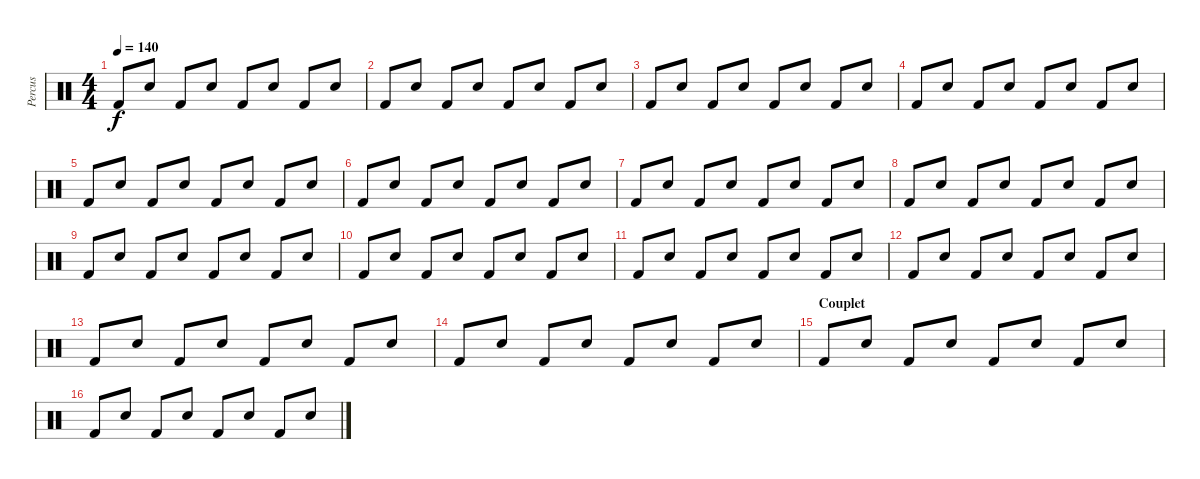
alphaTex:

\track ("Percus" "Percus") {instrument percussion}
\staff {score}
\articulation defaults
\ts (4 4)
\tempo 140
\clef neutral
\ks c "Kick (hit) 2".8{dy f} "Snare (hit) 2".8 "Kick (hit) 2".8 "Snare (hit) 2".8 "Kick (hit) 2".8 "Snare (hit) 2".8 "Kick (hit) 2".8 "Snare (hit) 2".8
|
"Kick (hit) 2".8 "Snare (hit) 2".8 "Kick (hit) 2".8 "Snare (hit) 2".8 "Kick (hit) 2".8 "Snare (hit) 2".8 "Kick (hit) 2".8 "Snare (hit) 2".8 |
"Kick (hit) 2".8 "Snare (hit) 2".8 "Kick (hit) 2".8 "Snare (hit) 2".8 "Kick (hit) 2".8 "Snare (hit) 2".8 "Kick (hit) 2".8 "Snare (hit) 2".8 |
"Kick (hit) 2".8 "Snare (hit) 2".8 "Kick (hit) 2".8 "Snare (hit) 2".8 "Kick (hit) 2".8 "Snare (hit) 2".8 "Kick (hit) 2".8 "Snare (hit) 2".8 |
"Kick (hit) 2".8 "Snare (hit) 2".8 "Kick (hit) 2".8 "Snare (hit) 2".8 "Kick (hit) 2".8 "Snare (hit) 2".8 "Kick (hit) 2".8 "Snare (hit) 2".8 |
"Kick (hit) 2".8 "Snare (hit) 2".8 "Kick (hit) 2".8 "Snare (hit) 2".8 "Kick (hit) 2".8 "Snare (hit) 2".8 "Kick (hit) 2".8 "Snare (hit) 2".8 |
\section ("" "")
"Kick (hit) 2".8 "Snare (hit) 2".8 "Kick (hit) 2".8 "Snare (hit) 2".8 "Kick (hit) 2".8 "Snare (hit) 2".8 "Kick (hit) 2".8 "Snare (hit) 2".8 |
"Kick (hit) 2".8 "Snare (hit) 2".8 "Kick (hit) 2".8 "Snare (hit) 2".8 "Kick (hit) 2".8 "Snare (hit) 2".8 "Kick (hit) 2".8 "Snare (hit) 2".8 |
"Kick (hit) 2".8 "Snare (hit) 2".8 "Kick (hit) 2".8 "Snare (hit) 2".8 "Kick (hit) 2".8 "Snare (hit) 2".8 "Kick (hit) 2".8 "Snare (hit) 2".8 |
"Kick (hit) 2".8 "Snare (hit) 2".8 "Kick (hit) 2".8 "Snare (hit) 2".8 "Kick (hit) 2".8 "Snare (hit) 2".8 "Kick (hit) 2".8 "Snare (hit) 2".8 |
"Kick (hit) 2".8 "Snare (hit) 2".8 "Kick (hit) 2".8 "Snare (hit) 2".8 "Kick (hit) 2".8 "Snare (hit) 2".8 "Kick (hit) 2".8 "Snare (hit) 2".8 |
"Kick (hit) 2".8 "Snare (hit) 2".8 "Kick (hit) 2".8 "Snare (hit) 2".8 "Kick (hit) 2".8 "Snare (hit) 2".8 "Kick (hit) 2".8 "Snare (hit) 2".8 |
"Kick (hit) 2".8 "Snare (hit) 2".8 "Kick (hit) 2".8 "Snare (hit) 2".8 "Kick (hit) 2".8 "Snare (hit) 2".8 "Kick (hit) 2".8 "Snare (hit) 2".8 |
"Kick (hit) 2".8 "Snare (hit) 2".8 "Kick (hit) 2".8 "Snare (hit) 2".8 "Kick (hit) 2".8 "Snare (hit) 2".8 "Kick (hit) 2".8 "Snare (hit) 2".8 |
\section ("" "Couplet")
"Kick (hit) 2".8 "Snare (hit) 2".8 "Kick (hit) 2".8 "Snare (hit) 2".8 "Kick (hit) 2".8 "Snare (hit) 2".8 "Kick (hit) 2".8 "Snare (hit) 2".8 |
"Kick (hit) 2".8 "Snare (hit) 2".8 "Kick (hit) 2".8 "Snare (hit) 2".8 "Kick (hit) 2".8 "Snare (hit) 2".8 "Kick (hit) 2".8 "Snare (hit) 2".8
